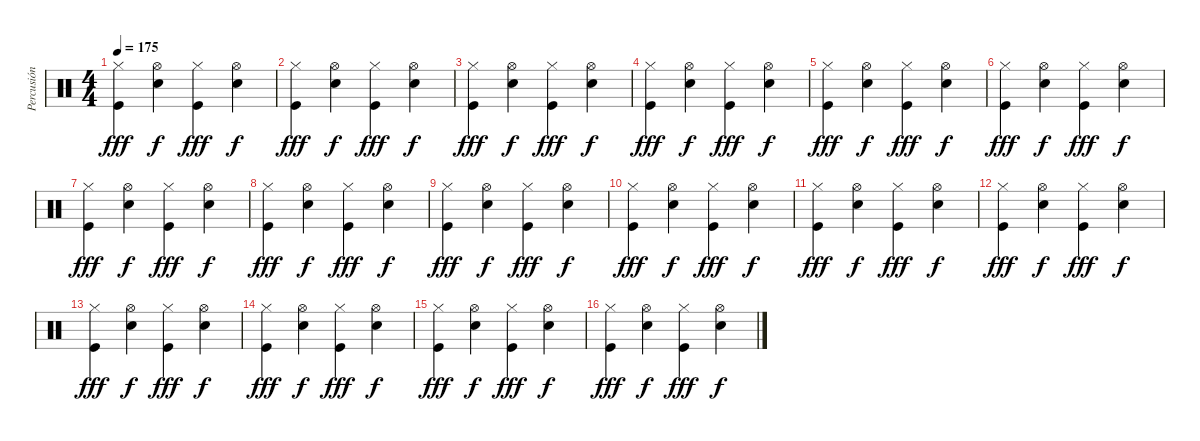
\track ("Percusión" "Percusión") {instrument percussion}
\staff {score}
\articulation defaults
\ts (4 4)
\tempo 175
\clef neutral
\ks c
("Hi-Hat (closed)" "Kick (hit)").4{dy fff} ("Hi-Hat (open)" "Electric Snare (hit)").4{dy f} ("Hi-Hat (closed)" "Kick (hit)").4{dy fff} ("Hi-Hat (open)" "Electric Snare (hit)").4{dy f} |
("Hi-Hat (closed)" "Kick (hit)").4{dy fff} ("Hi-Hat (open)" "Electric Snare (hit)").4{dy f} ("Hi-Hat (closed)" "Kick (hit)").4{dy fff} ("Hi-Hat (open)" "Electric Snare (hit)").4{dy f} |
("Hi-Hat (closed)" "Kick (hit)").4{dy fff} ("Hi-Hat (open)" "Electric Snare (hit)").4{dy f} ("Hi-Hat (closed)" "Kick (hit)").4{dy fff} ("Hi-Hat (open)" "Electric Snare (hit)").4{dy f} |
("Hi-Hat (closed)" "Kick (hit)").4{dy fff} ("Hi-Hat (open)" "Electric Snare (hit)").4{dy f} ("Hi-Hat (closed)" "Kick (hit)").4{dy fff} ("Hi-Hat (open)" "Electric Snare (hit)").4{dy f} |
("Hi-Hat (closed)" "Kick (hit)").4{dy fff} ("Hi-Hat (open)" "Electric Snare (hit)").4{dy f} ("Hi-Hat (closed)" "Kick (hit)").4{dy fff} ("Hi-Hat (open)" "Electric Snare (hit)").4{dy f} |
("Hi-Hat (closed)" "Kick (hit)").4{dy fff} ("Hi-Hat (open)" "Electric Snare (hit)").4{dy f} ("Hi-Hat (closed)" "Kick (hit)").4{dy fff} ("Hi-Hat (open)" "Electric Snare (hit)").4{dy f} |
("Hi-Hat (closed)" "Kick (hit)").4{dy fff} ("Hi-Hat (open)" "Electric Snare (hit)").4{dy f} ("Hi-Hat (closed)" "Kick (hit)").4{dy fff} ("Hi-Hat (open)" "Electric Snare (hit)").4{dy f} |
("Hi-Hat (closed)" "Kick (hit)").4{dy fff} ("Hi-Hat (open)" "Electric Snare (hit)").4{dy f} ("Hi-Hat (closed)" "Kick (hit)").4{dy fff} ("Hi-Hat (open)" "Electric Snare (hit)").4{dy f} |
("Hi-Hat (closed)" "Kick (hit)").4{dy fff} ("Hi-Hat (open)" "Electric Snare (hit)").4{dy f} ("Hi-Hat (closed)" "Kick (hit)").4{dy fff} ("Hi-Hat (open)" "Electric Snare (hit)").4{dy f} |
("Hi-Hat (closed)" "Kick (hit)").4{dy fff} ("Hi-Hat (open)" "Electric Snare (hit)").4{dy f} ("Hi-Hat (closed)" "Kick (hit)").4{dy fff} ("Hi-Hat (open)" "Electric Snare (hit)").4{dy f} |
("Hi-Hat (closed)" "Kick (hit)").4{dy fff} ("Hi-Hat (open)" "Electric Snare (hit)").4{dy f} ("Hi-Hat (closed)" "Kick (hit)").4{dy fff} ("Hi-Hat (open)" "Electric Snare (hit)").4{dy f} |
("Hi-Hat (closed)" "Kick (hit)").4{dy fff} ("Hi-Hat (open)" "Electric Snare (hit)").4{dy f} ("Hi-Hat (closed)" "Kick (hit)").4{dy fff} ("Hi-Hat (open)" "Electric Snare (hit)").4{dy f} |
("Hi-Hat (closed)" "Kick (hit)").4{dy fff} ("Hi-Hat (open)" "Electric Snare (hit)").4{dy f} ("Hi-Hat (closed)" "Kick (hit)").4{dy fff} ("Hi-Hat (open)" "Electric Snare (hit)").4{dy f} |
("Hi-Hat (closed)" "Kick (hit)").4{dy fff} ("Hi-Hat (open)" "Electric Snare (hit)").4{dy f} ("Hi-Hat (closed)" "Kick (hit)").4{dy fff} ("Hi-Hat (open)" "Electric Snare (hit)").4{dy f} |
("Hi-Hat (closed)" "Kick (hit)").4{dy fff} ("Hi-Hat (open)" "Electric Snare (hit)").4{dy f} ("Hi-Hat (closed)" "Kick (hit)").4{dy fff} ("Hi-Hat (open)" "Electric Snare (hit)").4{dy f} |
("Hi-Hat (closed)" "Kick (hit)").4{dy fff} ("Hi-Hat (open)" "Electric Snare (hit)").4{dy f} ("Hi-Hat (closed)" "Kick (hit)").4{dy fff} ("Hi-Hat (open)" "Electric Snare (hit)").4{dy f}
